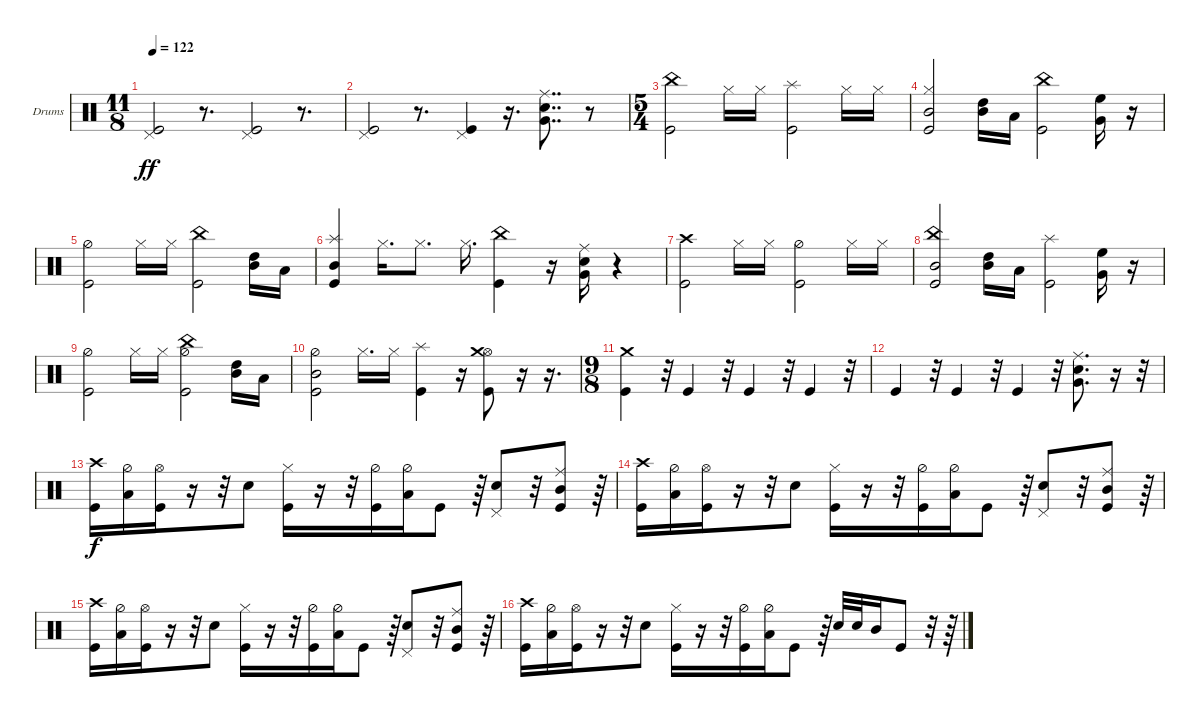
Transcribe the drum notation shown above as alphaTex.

\defaultSystemsLayout 4
\bracketExtendMode groupsimilarinstruments
\firstSystemTrackNameOrientation horizontal
\otherSystemsTrackNameOrientation horizontal
\track ("Drumkit" "Drums") {instrument percussion}
\staff {score}
\articulation defaults
\ts (11 8)
\tempo 122
\clef neutral
\ks c
("Kick (hit)" "Pedal Hi-Hat (hit)").2{dy ff} r.8{d} ("Kick (hit)" "Pedal Hi-Hat (hit)").2 r.8{d} |
("Kick (hit)" "Pedal Hi-Hat (hit)").2 r.8{d} ("Kick (hit)" "Pedal Hi-Hat (hit)").4 r.16{d} ("Ride (middle)" "Very Low Tom (hit)" "Snare (hit) 2").8{dd} r.8 |
\ts (5 4)
("Kick (hit)" "China (hit)").2 "Hi-Hat (closed)".16 "Hi-Hat (closed)".16 ("Kick (hit)" "Splash (hit)").2 "Hi-Hat (closed)".16 "Hi-Hat (closed)".16 |
("Kick (hit)" "Mid Tom (hit)" "Hi-Hat (closed)").2 ("Mid Tom (hit)" "High Tom (hit)").16 "Low Tom (hit)".16 ("Kick (hit)" "China (hit)").2 ("Very Low Tom (hit)" "High Floor Tom (hit)").16 r.16 |
("Kick (hit)" "Hi-Hat (half)").2 "Hi-Hat (closed)".16 "Hi-Hat (closed)".16 ("Kick (hit)" "China (hit)").2 ("Mid Tom (hit)" "High Tom (hit)").16 "Low Tom (hit)".16 |
("Kick (hit)" "Mid Tom (hit)" "Splash (hit)").4 "Hi-Hat (closed)".16{d} "Hi-Hat (closed)".8{d} "Hi-Hat (closed)".16{d} ("Kick (hit)" "China (hit)").4 r.16 ("Ride (middle)" "Very Low Tom (hit)" "Snare (hit) 2").16 r.4 |
("Kick (hit)" "Crash high (hit)").2 "Hi-Hat (closed)".16 "Hi-Hat (closed)".16 ("Kick (hit)" "Hi-Hat (half)").2 "Hi-Hat (closed)".16 "Hi-Hat (closed)".16 |
("Kick (hit)" "China (hit)" "Mid Tom (hit)").2 ("Mid Tom (hit)" "High Tom (hit)").16 "Low Tom (hit)".16 ("Kick (hit)" "Splash (hit)").2 ("Very Low Tom (hit)" "High Floor Tom (hit)").16 r.16 |
("Kick (hit)" "Hi-Hat (half)").2 "Hi-Hat (closed)".16 "Hi-Hat (closed)".16 ("Kick (hit)" "Hi-Hat (half)" "China (hit)").2 ("Mid Tom (hit)" "High Tom (hit)").16 "Low Tom (hit)".16 |
("Kick (hit)" "Mid Tom (hit)" "Hi-Hat (half)").2 "Hi-Hat (closed)".16{d} "Hi-Hat (closed)".16 ("Kick (hit)" "Splash (hit)").4 r.16 ("Kick (hit)" "Hi-Hat (open)" "Crash medium (hit)").8 r.16 r.16{d} |
\ts (9 8)
("Kick (hit)" "Crash medium (hit)").4 r.32 "Kick (hit)".4 r.32 "Kick (hit)".4 r.32 "Kick (hit)".4 r.32 |
"Kick (hit)".4 r.32 "Kick (hit)".4 r.32 "Kick (hit)".4 r.32 ("Ride (middle)" "Very Low Tom (hit)" "Snare (hit) 2").8{d} r.16 r.32 |
("Kick (hit)" "Crash high (hit)").16{dy f} ("Hi-Hat (half)" "Low Tom (hit)").16 ("Kick (hit)" "Hi-Hat (open)").16 r.16 r.32 "Snare (hit) 2".8 ("Kick (hit)" "Hi-Hat (closed)").16 r.16 r.32 ("Kick (hit)" "Hi-Hat (half)").16 ("Hi-Hat (half)" "Low Tom (hit)").16 "Kick (hit)".8 r.64 ("Snare (hit) 2" "Pedal Hi-Hat (hit)").8 r.32 ("Kick (hit)" "Mid Tom (hit)" "Ride (middle)").8 r.64 |
("Kick (hit)" "Crash high (hit)").16 ("Hi-Hat (half)" "Low Tom (hit)").16 ("Kick (hit)" "Hi-Hat (open)").16 r.16 r.32 "Snare (hit) 2".8 ("Kick (hit)" "Hi-Hat (closed)").16 r.16 r.32 ("Kick (hit)" "Hi-Hat (half)").16 ("Hi-Hat (half)" "Low Tom (hit)").16 "Kick (hit)".8 r.64 ("Snare (hit) 2" "Pedal Hi-Hat (hit)").8 r.32 ("Kick (hit)" "Mid Tom (hit)" "Ride (middle)").8 r.64 |
("Kick (hit)" "Crash high (hit)").16 ("Hi-Hat (half)" "Low Tom (hit)").16 ("Kick (hit)" "Hi-Hat (open)").16 r.16 r.32 "Snare (hit) 2".8 ("Kick (hit)" "Hi-Hat (closed)").16 r.16 r.32 ("Kick (hit)" "Hi-Hat (half)").16 ("Hi-Hat (half)" "Low Tom (hit)").16 "Kick (hit)".8 r.64 ("Snare (hit) 2" "Pedal Hi-Hat (hit)").8 r.32 ("Kick (hit)" "Mid Tom (hit)" "Ride (middle)").8 r.64 |
("Kick (hit)" "Crash high (hit)").16 ("Hi-Hat (half)" "Low Tom (hit)").16 ("Kick (hit)" "Hi-Hat (open)").16 r.16 r.32 "Snare (hit) 2".8 ("Kick (hit)" "Hi-Hat (closed)").16 r.16 r.32 ("Kick (hit)" "Hi-Hat (half)").16 ("Hi-Hat (half)" "Low Tom (hit)").16 "Kick (hit)".8 r.64 "Snare (hit) 2".32 "Snare (hit) 2".32 "Mid Tom (hit)".16 "Kick (hit)".8 r.32 r.64
